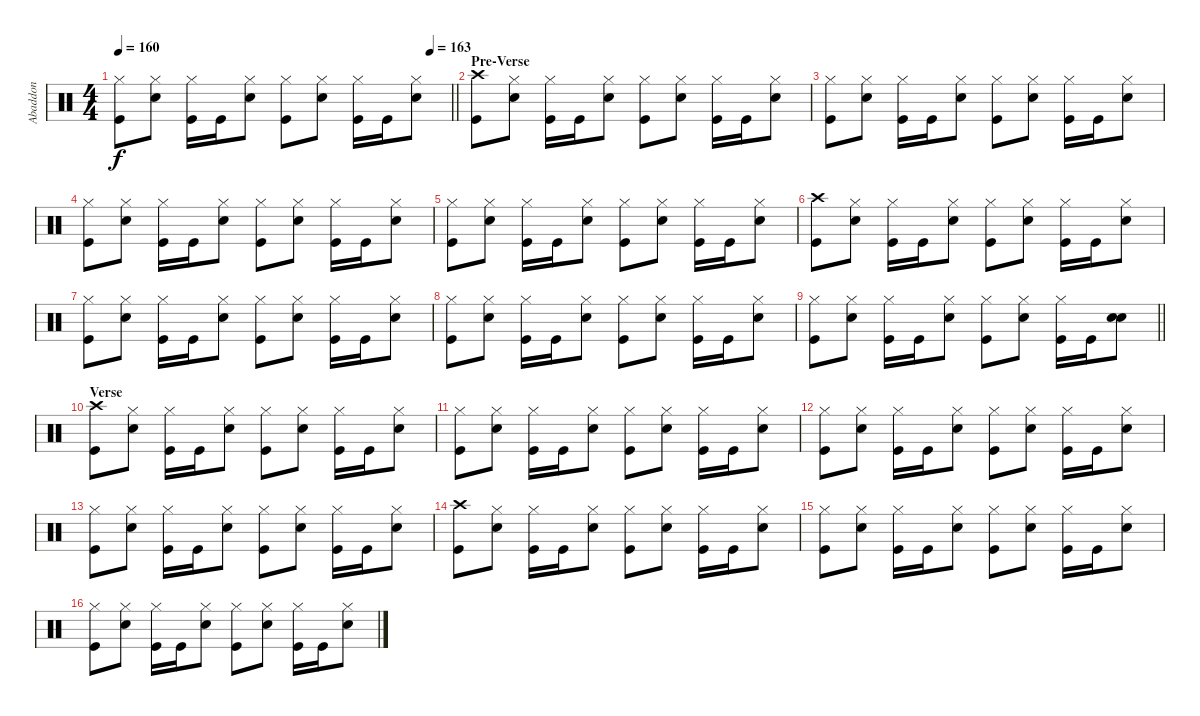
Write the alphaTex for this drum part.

\track ("Abaddon" "Abaddon") {instrument percussion}
\staff {score}
\articulation defaults
\ts (4 4)
\tempo 160
\tempo (163 0.9375)
\clef neutral
\barLineRight lightlight
\ks c
("Hi-Hat (closed)" "Kick (hit)").8{dy f} ("Hi-Hat (closed)" "Snare (hit) 2").8 ("Hi-Hat (closed)" "Kick (hit)").16 "Kick (hit)".16 ("Hi-Hat (closed)" "Snare (hit) 2").8 ("Hi-Hat (closed)" "Kick (hit)").8 ("Hi-Hat (closed)" "Snare (hit) 2").8 ("Hi-Hat (closed)" "Kick (hit)").16 "Kick (hit)".16 ("Hi-Hat (closed)" "Snare (hit) 2").8 |
\section ("" "Pre-Verse")
("Crash high (hit)" "Kick (hit)").8 ("Hi-Hat (closed)" "Snare (hit) 2").8 ("Hi-Hat (closed)" "Kick (hit)").16 "Kick (hit)".16 ("Hi-Hat (closed)" "Snare (hit) 2").8 ("Hi-Hat (closed)" "Kick (hit)").8 ("Hi-Hat (closed)" "Snare (hit) 2").8 ("Hi-Hat (closed)" "Kick (hit)").16 "Kick (hit)".16 ("Hi-Hat (closed)" "Snare (hit) 2").8 |
("Hi-Hat (closed)" "Kick (hit)").8 ("Hi-Hat (closed)" "Snare (hit) 2").8 ("Hi-Hat (closed)" "Kick (hit)").16 "Kick (hit)".16 ("Hi-Hat (closed)" "Snare (hit) 2").8 ("Hi-Hat (closed)" "Kick (hit)").8 ("Hi-Hat (closed)" "Snare (hit) 2").8 ("Hi-Hat (closed)" "Kick (hit)").16 "Kick (hit)".16 ("Hi-Hat (closed)" "Snare (hit) 2").8 |
("Hi-Hat (closed)" "Kick (hit)").8 ("Hi-Hat (closed)" "Snare (hit) 2").8 ("Hi-Hat (closed)" "Kick (hit)").16 "Kick (hit)".16 ("Hi-Hat (closed)" "Snare (hit) 2").8 ("Hi-Hat (closed)" "Kick (hit)").8 ("Hi-Hat (closed)" "Snare (hit) 2").8 ("Hi-Hat (closed)" "Kick (hit)").16 "Kick (hit)".16 ("Hi-Hat (closed)" "Snare (hit) 2").8 |
("Hi-Hat (closed)" "Kick (hit)").8 ("Hi-Hat (closed)" "Snare (hit) 2").8 ("Hi-Hat (closed)" "Kick (hit)").16 "Kick (hit)".16 ("Hi-Hat (closed)" "Snare (hit) 2").8 ("Hi-Hat (closed)" "Kick (hit)").8 ("Hi-Hat (closed)" "Snare (hit) 2").8 ("Hi-Hat (closed)" "Kick (hit)").16 "Kick (hit)".16 ("Hi-Hat (closed)" "Snare (hit) 2").8 |
("Crash high (hit)" "Kick (hit)").8 ("Hi-Hat (closed)" "Snare (hit) 2").8 ("Hi-Hat (closed)" "Kick (hit)").16 "Kick (hit)".16 ("Hi-Hat (closed)" "Snare (hit) 2").8 ("Hi-Hat (closed)" "Kick (hit)").8 ("Hi-Hat (closed)" "Snare (hit) 2").8 ("Hi-Hat (closed)" "Kick (hit)").16 "Kick (hit)".16 ("Hi-Hat (closed)" "Snare (hit) 2").8 |
("Hi-Hat (closed)" "Kick (hit)").8 ("Hi-Hat (closed)" "Snare (hit) 2").8 ("Hi-Hat (closed)" "Kick (hit)").16 "Kick (hit)".16 ("Hi-Hat (closed)" "Snare (hit) 2").8 ("Hi-Hat (closed)" "Kick (hit)").8 ("Hi-Hat (closed)" "Snare (hit) 2").8 ("Hi-Hat (closed)" "Kick (hit)").16 "Kick (hit)".16 ("Hi-Hat (closed)" "Snare (hit) 2").8 |
("Hi-Hat (closed)" "Kick (hit)").8 ("Hi-Hat (closed)" "Snare (hit) 2").8 ("Hi-Hat (closed)" "Kick (hit)").16 "Kick (hit)".16 ("Hi-Hat (closed)" "Snare (hit) 2").8 ("Hi-Hat (closed)" "Kick (hit)").8 ("Hi-Hat (closed)" "Snare (hit) 2").8 ("Hi-Hat (closed)" "Kick (hit)").16 "Kick (hit)".16 ("Hi-Hat (closed)" "Snare (hit) 2").8 |
\barLineRight lightlight
("Hi-Hat (closed)" "Kick (hit)").8 ("Hi-Hat (closed)" "Snare (hit) 2").8 ("Hi-Hat (closed)" "Kick (hit)").16 "Kick (hit)".16 ("Hi-Hat (closed)" "Snare (hit) 2").8 ("Hi-Hat (closed)" "Kick (hit)").8 ("Hi-Hat (closed)" "Snare (hit) 2").8 ("Hi-Hat (closed)" "Kick (hit)").16 "Kick (hit)".16 ("Snare (hit)" "Snare (hit) 2").8 |
\section ("" "Verse")
("Crash high (hit)" "Kick (hit)").8 ("Hi-Hat (closed)" "Snare (hit) 2").8 ("Hi-Hat (closed)" "Kick (hit)").16 "Kick (hit)".16 ("Hi-Hat (closed)" "Snare (hit) 2").8 ("Hi-Hat (closed)" "Kick (hit)").8 ("Hi-Hat (closed)" "Snare (hit) 2").8 ("Hi-Hat (closed)" "Kick (hit)").16 "Kick (hit)".16 ("Hi-Hat (closed)" "Snare (hit) 2").8 |
("Hi-Hat (closed)" "Kick (hit)").8 ("Hi-Hat (closed)" "Snare (hit) 2").8 ("Hi-Hat (closed)" "Kick (hit)").16 "Kick (hit)".16 ("Hi-Hat (closed)" "Snare (hit) 2").8 ("Hi-Hat (closed)" "Kick (hit)").8 ("Hi-Hat (closed)" "Snare (hit) 2").8 ("Hi-Hat (closed)" "Kick (hit)").16 "Kick (hit)".16 ("Hi-Hat (closed)" "Snare (hit) 2").8 |
("Hi-Hat (closed)" "Kick (hit)").8 ("Hi-Hat (closed)" "Snare (hit) 2").8 ("Hi-Hat (closed)" "Kick (hit)").16 "Kick (hit)".16 ("Hi-Hat (closed)" "Snare (hit) 2").8 ("Hi-Hat (closed)" "Kick (hit)").8 ("Hi-Hat (closed)" "Snare (hit) 2").8 ("Hi-Hat (closed)" "Kick (hit)").16 "Kick (hit)".16 ("Hi-Hat (closed)" "Snare (hit) 2").8 |
("Hi-Hat (closed)" "Kick (hit)").8 ("Hi-Hat (closed)" "Snare (hit) 2").8 ("Hi-Hat (closed)" "Kick (hit)").16 "Kick (hit)".16 ("Hi-Hat (closed)" "Snare (hit) 2").8 ("Hi-Hat (closed)" "Kick (hit)").8 ("Hi-Hat (closed)" "Snare (hit) 2").8 ("Hi-Hat (closed)" "Kick (hit)").16 "Kick (hit)".16 ("Hi-Hat (closed)" "Snare (hit) 2").8 |
("Crash high (hit)" "Kick (hit)").8 ("Hi-Hat (closed)" "Snare (hit) 2").8 ("Hi-Hat (closed)" "Kick (hit)").16 "Kick (hit)".16 ("Hi-Hat (closed)" "Snare (hit) 2").8 ("Hi-Hat (closed)" "Kick (hit)").8 ("Hi-Hat (closed)" "Snare (hit) 2").8 ("Hi-Hat (closed)" "Kick (hit)").16 "Kick (hit)".16 ("Hi-Hat (closed)" "Snare (hit) 2").8 |
("Hi-Hat (closed)" "Kick (hit)").8 ("Hi-Hat (closed)" "Snare (hit) 2").8 ("Hi-Hat (closed)" "Kick (hit)").16 "Kick (hit)".16 ("Hi-Hat (closed)" "Snare (hit) 2").8 ("Hi-Hat (closed)" "Kick (hit)").8 ("Hi-Hat (closed)" "Snare (hit) 2").8 ("Hi-Hat (closed)" "Kick (hit)").16 "Kick (hit)".16 ("Hi-Hat (closed)" "Snare (hit) 2").8 |
("Hi-Hat (closed)" "Kick (hit)").8 ("Hi-Hat (closed)" "Snare (hit) 2").8 ("Hi-Hat (closed)" "Kick (hit)").16 "Kick (hit)".16 ("Hi-Hat (closed)" "Snare (hit) 2").8 ("Hi-Hat (closed)" "Kick (hit)").8 ("Hi-Hat (closed)" "Snare (hit) 2").8 ("Hi-Hat (closed)" "Kick (hit)").16 "Kick (hit)".16 ("Hi-Hat (closed)" "Snare (hit) 2").8
